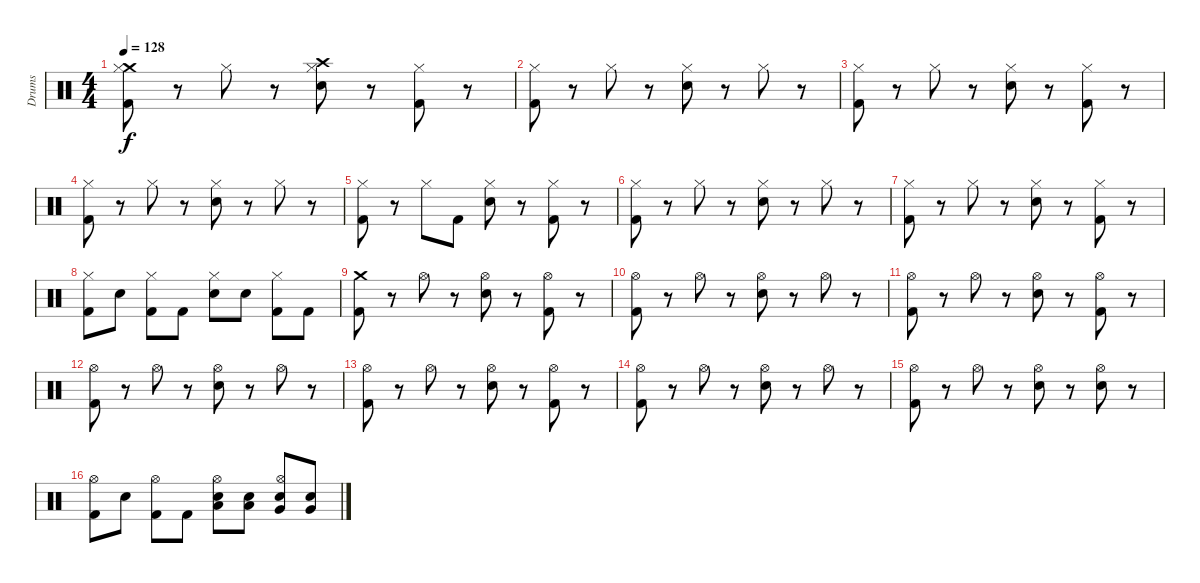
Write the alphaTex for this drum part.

\track ("Drums" "Drums") {instrument percussion}
\staff {score}
\articulation defaults
\ts (4 4)
\tempo 128
\clef neutral
\ks c
("Crash medium (hit)" "Hi-Hat (closed)" "Kick (hit) 2").8{dy f} r.8 "Hi-Hat (closed)".8 r.8 ("Crash high (hit)" "Hi-Hat (closed)" "Snare (hit) 2").8 r.8 ("Hi-Hat (closed)" "Kick (hit) 2").8 r.8 |
("Hi-Hat (closed)" "Kick (hit) 2").8 r.8 "Hi-Hat (closed)".8 r.8 ("Snare (hit) 2" "Hi-Hat (closed)").8 r.8 "Hi-Hat (closed)".8 r.8 |
("Hi-Hat (closed)" "Kick (hit) 2").8 r.8 "Hi-Hat (closed)".8 r.8 ("Snare (hit) 2" "Hi-Hat (closed)").8 r.8 ("Hi-Hat (closed)" "Kick (hit) 2").8 r.8 |
("Hi-Hat (closed)" "Kick (hit) 2").8 r.8 "Hi-Hat (closed)".8 r.8 ("Snare (hit) 2" "Hi-Hat (closed)").8 r.8 "Hi-Hat (closed)".8 r.8 |
("Hi-Hat (closed)" "Kick (hit) 2").8 r.8 "Hi-Hat (closed)".8 "Kick (hit) 2".8 ("Snare (hit) 2" "Hi-Hat (closed)").8 r.8 ("Hi-Hat (closed)" "Kick (hit) 2").8 r.8 |
("Hi-Hat (closed)" "Kick (hit) 2").8 r.8 "Hi-Hat (closed)".8 r.8 ("Snare (hit) 2" "Hi-Hat (closed)").8 r.8 "Hi-Hat (closed)".8 r.8 |
("Hi-Hat (closed)" "Kick (hit) 2").8 r.8 "Hi-Hat (closed)".8 r.8 ("Snare (hit) 2" "Hi-Hat (closed)").8 r.8 ("Hi-Hat (closed)" "Kick (hit) 2").8 r.8 |
("Hi-Hat (closed)" "Kick (hit) 2").8 "Snare (hit) 2".8 ("Hi-Hat (closed)" "Kick (hit) 2").8 "Kick (hit) 2".8 ("Hi-Hat (closed)" "Snare (hit) 2").8 "Snare (hit) 2".8 ("Hi-Hat (closed)" "Kick (hit) 2").8 "Kick (hit) 2".8 |
("Crash medium (hit)" "Kick (hit) 2").8 r.8 "Hi-Hat (open)".8 r.8 ("Hi-Hat (open)" "Snare (hit) 2").8 r.8 ("Hi-Hat (open)" "Kick (hit) 2").8 r.8 |
("Hi-Hat (open)" "Kick (hit) 2").8 r.8 "Hi-Hat (open)".8 r.8 ("Hi-Hat (open)" "Snare (hit) 2").8 r.8 "Hi-Hat (open)".8 r.8 |
("Hi-Hat (open)" "Kick (hit) 2").8 r.8 "Hi-Hat (open)".8 r.8 ("Hi-Hat (open)" "Snare (hit) 2").8 r.8 ("Hi-Hat (open)" "Kick (hit) 2").8 r.8 |
("Hi-Hat (open)" "Kick (hit) 2").8 r.8 "Hi-Hat (open)".8 r.8 ("Hi-Hat (open)" "Snare (hit) 2").8 r.8 "Hi-Hat (open)".8 r.8 |
("Hi-Hat (open)" "Kick (hit) 2").8 r.8 "Hi-Hat (open)".8 r.8 ("Hi-Hat (open)" "Snare (hit) 2").8 r.8 ("Hi-Hat (open)" "Kick (hit) 2").8 r.8 |
("Hi-Hat (open)" "Kick (hit) 2").8 r.8 "Hi-Hat (open)".8 r.8 ("Hi-Hat (open)" "Snare (hit) 2").8 r.8 "Hi-Hat (open)".8 r.8 |
("Hi-Hat (open)" "Kick (hit) 2").8 r.8 "Hi-Hat (open)".8 r.8 ("Hi-Hat (open)" "Snare (hit) 2").8 r.8 ("Hi-Hat (open)" "Snare (hit) 2").8 r.8 |
("Hi-Hat (open)" "Kick (hit) 2").8 "Snare (hit) 2".8 ("Hi-Hat (open)" "Kick (hit) 2").8 "Kick (hit) 2".8 ("Hi-Hat (open)" "Low Tom (hit)" "Snare (hit) 2").8 ("Low Tom (hit)" "Snare (hit) 2").8 ("Hi-Hat (open)" "Very Low Tom (hit)" "Snare (hit) 2").8 ("Very Low Tom (hit)" "Snare (hit) 2").8
